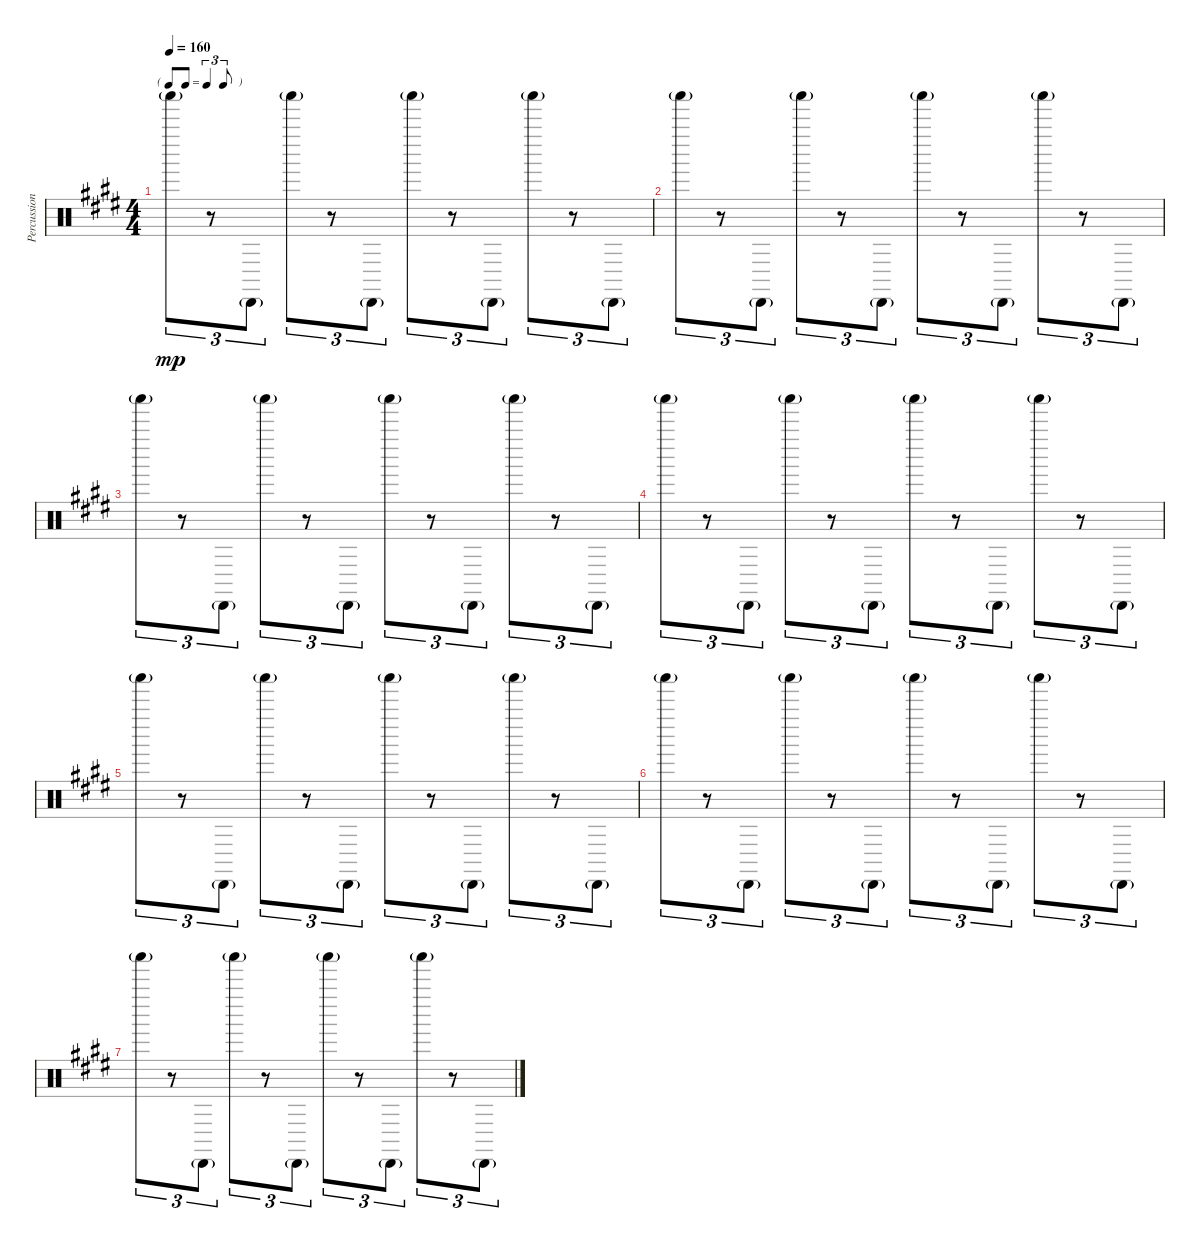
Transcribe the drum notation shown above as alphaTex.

\track ("Percussion" "Percussion") {instrument percussion}
\staff {score}
\articulation defaults
\ts (4 4)
\tf triplet8th
\tempo 160
\clef neutral
\ks e "Shaker (hit)"{g}.8{tu (3 2) dy mp}
r.8{tu (3 2)} "Cabasa (hit)"{g}.8{tu (3 2)} "Shaker (hit)"{g}.8{tu (3 2)} r.8{tu (3 2)} "Cabasa (hit)"{g}.8{tu (3 2)} "Shaker (hit)"{g}.8{tu (3 2)} r.8{tu (3 2)} "Cabasa (hit)"{g}.8{tu (3 2)} "Shaker (hit)"{g}.8{tu (3 2)} r.8{tu (3 2)} "Cabasa (hit)"{g}.8{tu (3 2)} |
"Shaker (hit)"{g}.8{tu (3 2)} r.8{tu (3 2)} "Cabasa (hit)"{g}.8{tu (3 2)} "Shaker (hit)"{g}.8{tu (3 2)} r.8{tu (3 2)} "Cabasa (hit)"{g}.8{tu (3 2)} "Shaker (hit)"{g}.8{tu (3 2)} r.8{tu (3 2)} "Cabasa (hit)"{g}.8{tu (3 2)} "Shaker (hit)"{g}.8{tu (3 2)} r.8{tu (3 2)} "Cabasa (hit)"{g}.8{tu (3 2)} |
"Shaker (hit)"{g}.8{tu (3 2)} r.8{tu (3 2)} "Cabasa (hit)"{g}.8{tu (3 2)} "Shaker (hit)"{g}.8{tu (3 2)} r.8{tu (3 2)} "Cabasa (hit)"{g}.8{tu (3 2)} "Shaker (hit)"{g}.8{tu (3 2)} r.8{tu (3 2)} "Cabasa (hit)"{g}.8{tu (3 2)} "Shaker (hit)"{g}.8{tu (3 2)} r.8{tu (3 2)} "Cabasa (hit)"{g}.8{tu (3 2)} |
"Shaker (hit)"{g}.8{tu (3 2)} r.8{tu (3 2)} "Cabasa (hit)"{g}.8{tu (3 2)} "Shaker (hit)"{g}.8{tu (3 2)} r.8{tu (3 2)} "Cabasa (hit)"{g}.8{tu (3 2)} "Shaker (hit)"{g}.8{tu (3 2)} r.8{tu (3 2)} "Cabasa (hit)"{g}.8{tu (3 2)} "Shaker (hit)"{g}.8{tu (3 2)} r.8{tu (3 2)} "Cabasa (hit)"{g}.8{tu (3 2)} |
"Shaker (hit)"{g}.8{tu (3 2)} r.8{tu (3 2)} "Cabasa (hit)"{g}.8{tu (3 2)} "Shaker (hit)"{g}.8{tu (3 2)} r.8{tu (3 2)} "Cabasa (hit)"{g}.8{tu (3 2)} "Shaker (hit)"{g}.8{tu (3 2)} r.8{tu (3 2)} "Cabasa (hit)"{g}.8{tu (3 2)} "Shaker (hit)"{g}.8{tu (3 2)} r.8{tu (3 2)} "Cabasa (hit)"{g}.8{tu (3 2)} |
"Shaker (hit)"{g}.8{tu (3 2)} r.8{tu (3 2)} "Cabasa (hit)"{g}.8{tu (3 2)} "Shaker (hit)"{g}.8{tu (3 2)} r.8{tu (3 2)} "Cabasa (hit)"{g}.8{tu (3 2)} "Shaker (hit)"{g}.8{tu (3 2)} r.8{tu (3 2)} "Cabasa (hit)"{g}.8{tu (3 2)} "Shaker (hit)"{g}.8{tu (3 2)} r.8{tu (3 2)} "Cabasa (hit)"{g}.8{tu (3 2)} |
"Shaker (hit)"{g}.8{tu (3 2)} r.8{tu (3 2)} "Cabasa (hit)"{g}.8{tu (3 2)} "Shaker (hit)"{g}.8{tu (3 2)} r.8{tu (3 2)} "Cabasa (hit)"{g}.8{tu (3 2)} "Shaker (hit)"{g}.8{tu (3 2)} r.8{tu (3 2)} "Cabasa (hit)"{g}.8{tu (3 2)} "Shaker (hit)"{g}.8{tu (3 2)} r.8{tu (3 2)} "Cabasa (hit)"{g}.8{tu (3 2)}
